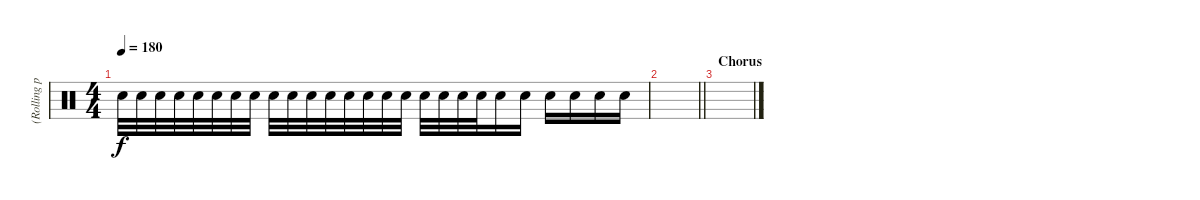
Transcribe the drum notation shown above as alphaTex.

\track ("(Rolling part of Pre-Chorus)" "(Rolling p") {instrument percussion}
\staff {score}
\articulation defaults
\ts (4 4)
\tempo 180
\clef neutral
\ks c "Snare (hit) 2".32{dy f} "Snare (hit) 2".32 "Snare (hit) 2".32 "Snare (hit) 2".32 "Snare (hit) 2".32 "Snare (hit) 2".32 "Snare (hit) 2".32 "Snare (hit) 2".32 "Snare (hit) 2".32 "Snare (hit) 2".32 "Snare (hit) 2".32 "Snare (hit) 2".32 "Snare (hit) 2".32 "Snare (hit) 2".32 "Snare (hit) 2".32 "Snare (hit) 2".32 "Snare (hit) 2".32 "Snare (hit) 2".32 "Snare (hit) 2".32 "Snare (hit) 2".32 "Snare (hit) 2".16 "Snare (hit) 2".16 "Snare (hit) 2".16 "Snare (hit) 2".16 "Snare (hit) 2".16 "Snare (hit) 2".16
|
\barLineRight lightlight
|
\section ("" "Chorus")
